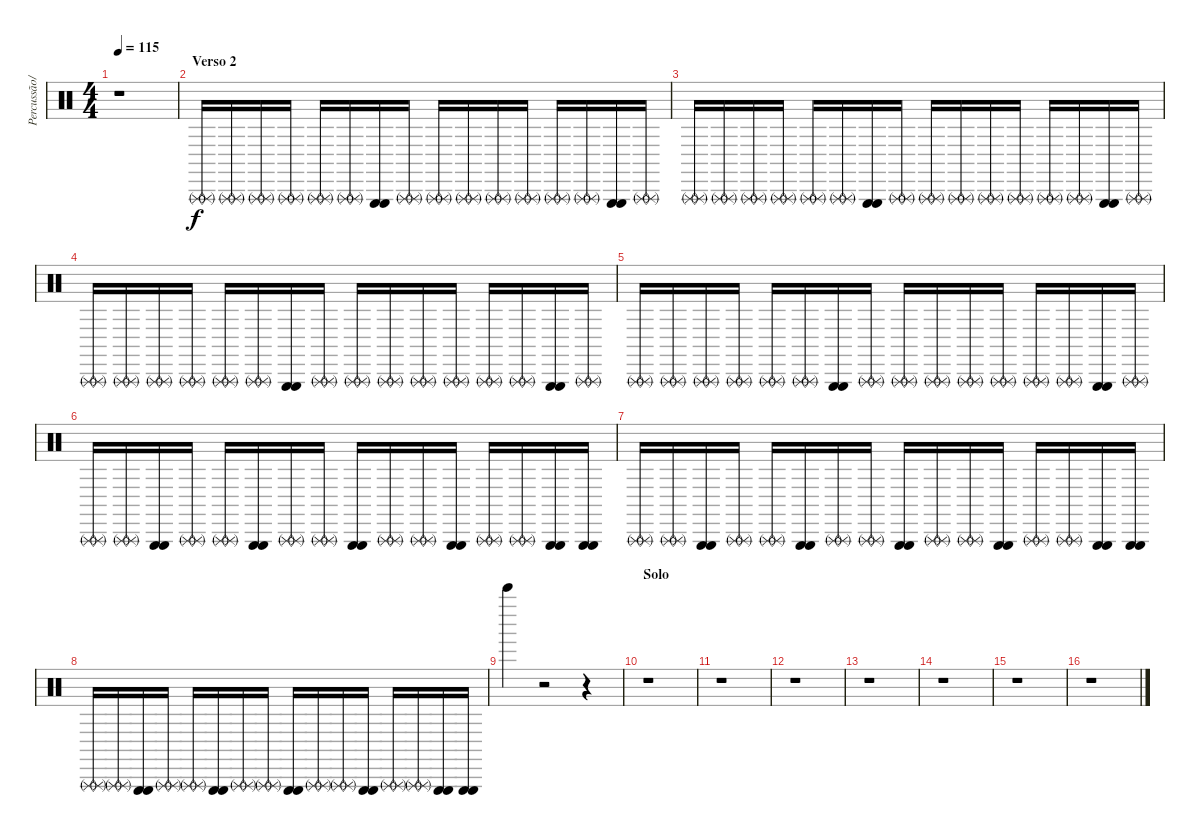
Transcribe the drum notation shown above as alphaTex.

\track ("Percussão/DJ" "Percussão/") {instrument percussion}
\staff {score}
\articulation defaults
\ts (4 4)
\tempo 115
\clef neutral
\ks c
r.1{dy f} |
\section ("" "Verso 2")
("Triangle (rnute)" "Triangle (rnute)").16{volume 16} ("Triangle (rnute)" "Triangle (rnute)").16 ("Triangle (rnute)" "Triangle (rnute)").16 ("Triangle (rnute)" "Triangle (rnute)").16 ("Triangle (rnute)" "Triangle (rnute)").16 ("Triangle (rnute)" "Triangle (rnute)").16 ("Triangle (hit)" "Triangle (hit)").16 ("Triangle (rnute)" "Triangle (rnute)").16 ("Triangle (rnute)" "Triangle (rnute)").16 ("Triangle (rnute)" "Triangle (rnute)").16 ("Triangle (rnute)" "Triangle (rnute)").16 ("Triangle (rnute)" "Triangle (rnute)").16 ("Triangle (rnute)" "Triangle (rnute)").16 ("Triangle (rnute)" "Triangle (rnute)").16 ("Triangle (hit)" "Triangle (hit)").16 ("Triangle (rnute)" "Triangle (rnute)").16 |
("Triangle (rnute)" "Triangle (rnute)").16{volume 16} ("Triangle (rnute)" "Triangle (rnute)").16 ("Triangle (rnute)" "Triangle (rnute)").16 ("Triangle (rnute)" "Triangle (rnute)").16 ("Triangle (rnute)" "Triangle (rnute)").16 ("Triangle (rnute)" "Triangle (rnute)").16 ("Triangle (hit)" "Triangle (hit)").16 ("Triangle (rnute)" "Triangle (rnute)").16 ("Triangle (rnute)" "Triangle (rnute)").16 ("Triangle (rnute)" "Triangle (rnute)").16 ("Triangle (rnute)" "Triangle (rnute)").16 ("Triangle (rnute)" "Triangle (rnute)").16 ("Triangle (rnute)" "Triangle (rnute)").16 ("Triangle (rnute)" "Triangle (rnute)").16 ("Triangle (hit)" "Triangle (hit)").16 ("Triangle (rnute)" "Triangle (rnute)").16 |
("Triangle (rnute)" "Triangle (rnute)").16{volume 16} ("Triangle (rnute)" "Triangle (rnute)").16 ("Triangle (rnute)" "Triangle (rnute)").16 ("Triangle (rnute)" "Triangle (rnute)").16 ("Triangle (rnute)" "Triangle (rnute)").16 ("Triangle (rnute)" "Triangle (rnute)").16 ("Triangle (hit)" "Triangle (hit)").16 ("Triangle (rnute)" "Triangle (rnute)").16 ("Triangle (rnute)" "Triangle (rnute)").16 ("Triangle (rnute)" "Triangle (rnute)").16 ("Triangle (rnute)" "Triangle (rnute)").16 ("Triangle (rnute)" "Triangle (rnute)").16 ("Triangle (rnute)" "Triangle (rnute)").16 ("Triangle (rnute)" "Triangle (rnute)").16 ("Triangle (hit)" "Triangle (hit)").16 ("Triangle (rnute)" "Triangle (rnute)").16 |
("Triangle (rnute)" "Triangle (rnute)").16{volume 16} ("Triangle (rnute)" "Triangle (rnute)").16 ("Triangle (rnute)" "Triangle (rnute)").16 ("Triangle (rnute)" "Triangle (rnute)").16 ("Triangle (rnute)" "Triangle (rnute)").16 ("Triangle (rnute)" "Triangle (rnute)").16 ("Triangle (hit)" "Triangle (hit)").16 ("Triangle (rnute)" "Triangle (rnute)").16 ("Triangle (rnute)" "Triangle (rnute)").16 ("Triangle (rnute)" "Triangle (rnute)").16 ("Triangle (rnute)" "Triangle (rnute)").16 ("Triangle (rnute)" "Triangle (rnute)").16 ("Triangle (rnute)" "Triangle (rnute)").16 ("Triangle (rnute)" "Triangle (rnute)").16 ("Triangle (hit)" "Triangle (hit)").16 ("Triangle (rnute)" "Triangle (rnute)").16 |
("Triangle (rnute)" "Triangle (rnute)").16{volume 16} ("Triangle (rnute)" "Triangle (rnute)").16 ("Triangle (hit)" "Triangle (hit)").16 ("Triangle (rnute)" "Triangle (rnute)").16 ("Triangle (rnute)" "Triangle (rnute)").16 ("Triangle (hit)" "Triangle (hit)").16 ("Triangle (rnute)" "Triangle (rnute)").16 ("Triangle (rnute)" "Triangle (rnute)").16 ("Triangle (hit)" "Triangle (hit)").16 ("Triangle (rnute)" "Triangle (rnute)").16 ("Triangle (rnute)" "Triangle (rnute)").16 ("Triangle (hit)" "Triangle (hit)").16 ("Triangle (rnute)" "Triangle (rnute)").16 ("Triangle (rnute)" "Triangle (rnute)").16 ("Triangle (hit)" "Triangle (hit)").16 ("Triangle (hit)" "Triangle (hit)").16 |
("Triangle (rnute)" "Triangle (rnute)").16{volume 16} ("Triangle (rnute)" "Triangle (rnute)").16 ("Triangle (hit)" "Triangle (hit)").16 ("Triangle (rnute)" "Triangle (rnute)").16 ("Triangle (rnute)" "Triangle (rnute)").16 ("Triangle (hit)" "Triangle (hit)").16 ("Triangle (rnute)" "Triangle (rnute)").16 ("Triangle (rnute)" "Triangle (rnute)").16 ("Triangle (hit)" "Triangle (hit)").16 ("Triangle (rnute)" "Triangle (rnute)").16 ("Triangle (rnute)" "Triangle (rnute)").16 ("Triangle (hit)" "Triangle (hit)").16 ("Triangle (rnute)" "Triangle (rnute)").16 ("Triangle (rnute)" "Triangle (rnute)").16 ("Triangle (hit)" "Triangle (hit)").16 ("Triangle (hit)" "Triangle (hit)").16 |
("Triangle (rnute)" "Triangle (rnute)").16{volume 16} ("Triangle (rnute)" "Triangle (rnute)").16 ("Triangle (hit)" "Triangle (hit)").16 ("Triangle (rnute)" "Triangle (rnute)").16 ("Triangle (rnute)" "Triangle (rnute)").16 ("Triangle (hit)" "Triangle (hit)").16 ("Triangle (rnute)" "Triangle (rnute)").16 ("Triangle (rnute)" "Triangle (rnute)").16 ("Triangle (hit)" "Triangle (hit)").16 ("Triangle (rnute)" "Triangle (rnute)").16 ("Triangle (rnute)" "Triangle (rnute)").16 ("Triangle (hit)" "Triangle (hit)").16 ("Triangle (rnute)" "Triangle (rnute)").16 ("Triangle (rnute)" "Triangle (rnute)").16 ("Triangle (hit)" "Triangle (hit)").16 ("Triangle (hit)" "Triangle (hit)").16 |
"Bell Tree (hit)".4{volume 13} r.2 r.4 |
\section ("" "Solo")
r.1 |
r.1 |
r.1 |
r.1 |
r.1 |
r.1 |
r.1
